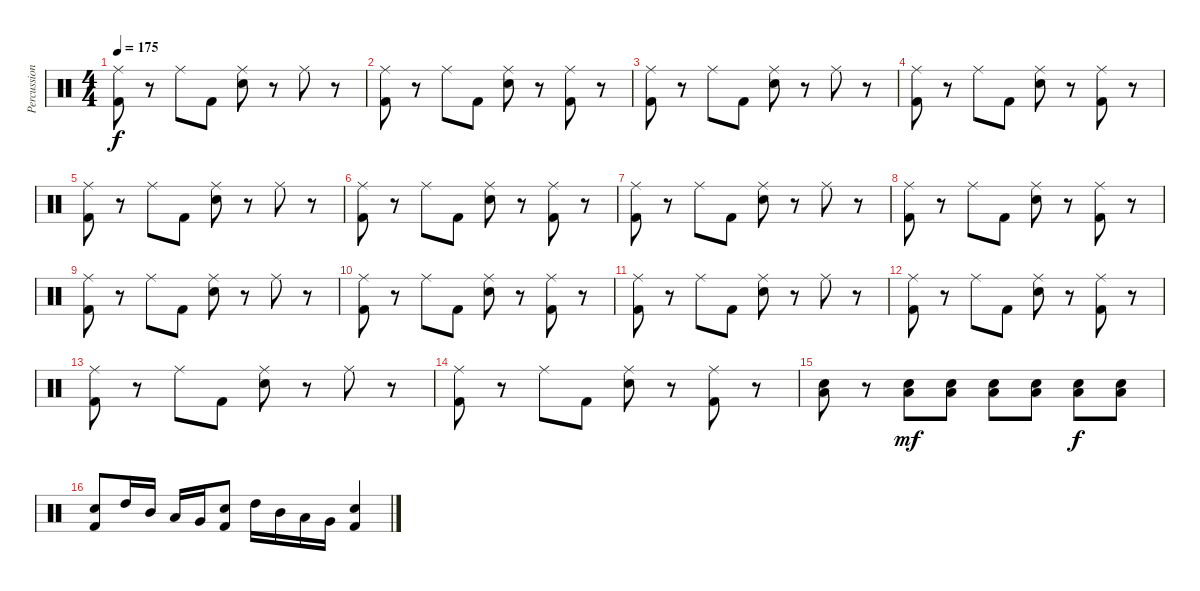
\track ("Percussions" "Percussion") {instrument percussion}
\staff {score}
\articulation defaults
\ts (4 4)
\tempo 175
\clef neutral
\ks c
("Ride (middle)" "Kick (hit) 2").8{dy f} r.8 "Ride (middle)".8 "Kick (hit) 2".8 ("Ride (middle)" "Snare (hit) 2").8 r.8 "Ride (middle)".8 r.8 |
("Ride (middle)" "Kick (hit) 2").8 r.8 "Ride (middle)".8 "Kick (hit) 2".8 ("Ride (middle)" "Snare (hit) 2").8 r.8 ("Ride (middle)" "Kick (hit) 2").8 r.8 |
("Ride (middle)" "Kick (hit) 2").8 r.8 "Ride (middle)".8 "Kick (hit) 2".8 ("Ride (middle)" "Snare (hit) 2").8 r.8 "Ride (middle)".8 r.8 |
("Ride (middle)" "Kick (hit) 2").8 r.8 "Ride (middle)".8 "Kick (hit) 2".8 ("Ride (middle)" "Snare (hit) 2").8 r.8 ("Ride (middle)" "Kick (hit) 2").8 r.8 |
("Ride (middle)" "Kick (hit) 2").8 r.8 "Ride (middle)".8 "Kick (hit) 2".8 ("Ride (middle)" "Snare (hit) 2").8 r.8 "Ride (middle)".8 r.8 |
("Ride (middle)" "Kick (hit) 2").8 r.8 "Ride (middle)".8 "Kick (hit) 2".8 ("Ride (middle)" "Snare (hit) 2").8 r.8 ("Ride (middle)" "Kick (hit) 2").8 r.8 |
("Ride (middle)" "Kick (hit) 2").8 r.8 "Ride (middle)".8 "Kick (hit) 2".8 ("Ride (middle)" "Snare (hit) 2").8 r.8 "Ride (middle)".8 r.8 |
("Ride (middle)" "Kick (hit) 2").8 r.8 "Ride (middle)".8 "Kick (hit) 2".8 ("Ride (middle)" "Snare (hit) 2").8 r.8 ("Ride (middle)" "Kick (hit) 2").8 r.8 |
("Ride (middle)" "Kick (hit) 2").8 r.8 "Ride (middle)".8 "Kick (hit) 2".8 ("Ride (middle)" "Snare (hit) 2").8 r.8 "Ride (middle)".8 r.8 |
("Ride (middle)" "Kick (hit) 2").8 r.8 "Ride (middle)".8 "Kick (hit) 2".8 ("Ride (middle)" "Snare (hit) 2").8 r.8 ("Ride (middle)" "Kick (hit) 2").8 r.8 |
("Ride (middle)" "Kick (hit) 2").8 r.8 "Ride (middle)".8 "Kick (hit) 2".8 ("Ride (middle)" "Snare (hit) 2").8 r.8 "Ride (middle)".8 r.8 |
("Ride (middle)" "Kick (hit) 2").8 r.8 "Ride (middle)".8 "Kick (hit) 2".8 ("Ride (middle)" "Snare (hit) 2").8 r.8 ("Ride (middle)" "Kick (hit) 2").8 r.8 |
("Ride (middle)" "Kick (hit) 2").8 r.8 "Ride (middle)".8 "Kick (hit) 2".8 ("Ride (middle)" "Snare (hit) 2").8 r.8 "Ride (middle)".8 r.8 |
("Ride (middle)" "Kick (hit) 2").8 r.8 "Ride (middle)".8 "Kick (hit) 2".8 ("Ride (middle)" "Snare (hit) 2").8 r.8 ("Ride (middle)" "Kick (hit) 2").8 r.8 |
("Snare (hit) 2" "Low Tom (hit)").8 r.8 ("Snare (hit) 2" "Low Tom (hit)").8{dy mf} ("Snare (hit) 2" "Low Tom (hit)").8 ("Snare (hit) 2" "Low Tom (hit)").8 ("Snare (hit) 2" "Low Tom (hit)").8 ("Snare (hit) 2" "Low Tom (hit)").8{dy f} ("Snare (hit) 2" "Low Tom (hit)").8 |
("Snare (hit) 2" "Kick (hit) 2").8 "High Tom (hit)".16 "Mid Tom (hit)".16 "Low Tom (hit)".16 "Very Low Tom (hit)".16 ("Snare (hit) 2" "Kick (hit) 2").8 "High Tom (hit)".16 "Mid Tom (hit)".16 "Low Tom (hit)".16 "Very Low Tom (hit)".16 ("Snare (hit) 2" "Kick (hit) 2").4
